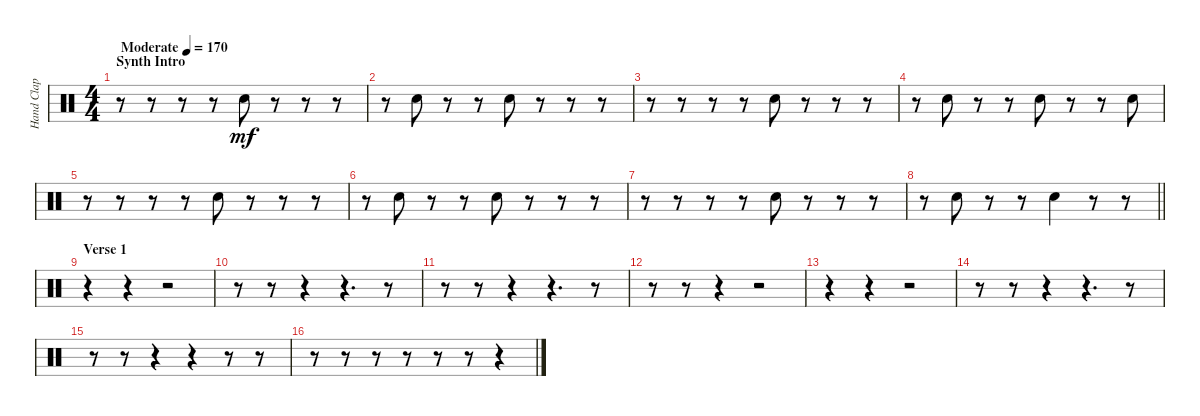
\track ("Hand Clap" "Hand Clap") {instrument percussion}
\staff {score}
\articulation defaults
\ts (4 4)
\section ("" "Synth Intro")
\tempo (170 "Moderate")
\clef neutral
\ks c
r.8{dy mf} r.8 r.8 r.8 "Hand Clap (hit)".8 r.8 r.8 r.8 |
r.8 "Hand Clap (hit)".8 r.8 r.8 "Hand Clap (hit)".8 r.8 r.8 r.8 |
r.8 r.8 r.8 r.8 "Hand Clap (hit)".8 r.8 r.8 r.8 |
r.8 "Hand Clap (hit)".8 r.8 r.8 "Hand Clap (hit)".8 r.8 r.8 "Hand Clap (hit)".8 |
r.8 r.8 r.8 r.8 "Hand Clap (hit)".8 r.8 r.8 r.8 |
r.8 "Hand Clap (hit)".8 r.8 r.8 "Hand Clap (hit)".8 r.8 r.8 r.8 |
r.8 r.8 r.8 r.8 "Hand Clap (hit)".8 r.8 r.8 r.8 |
\barLineRight lightlight
r.8 "Hand Clap (hit)".8 r.8 r.8 "Hand Clap (hit)".4 r.8 r.8 |
\section ("" "Verse 1")
r.4 r.4 r.2 |
r.8 r.8 r.4 r.4{d} r.8 |
r.8 r.8 r.4 r.4{d} r.8 |
r.8 r.8 r.4 r.2 |
r.4 r.4 r.2 |
r.8 r.8 r.4 r.4{d} r.8 |
r.8 r.8 r.4 r.4 r.8 r.8 |
r.8 r.8 r.8 r.8 r.8 r.8 r.4
